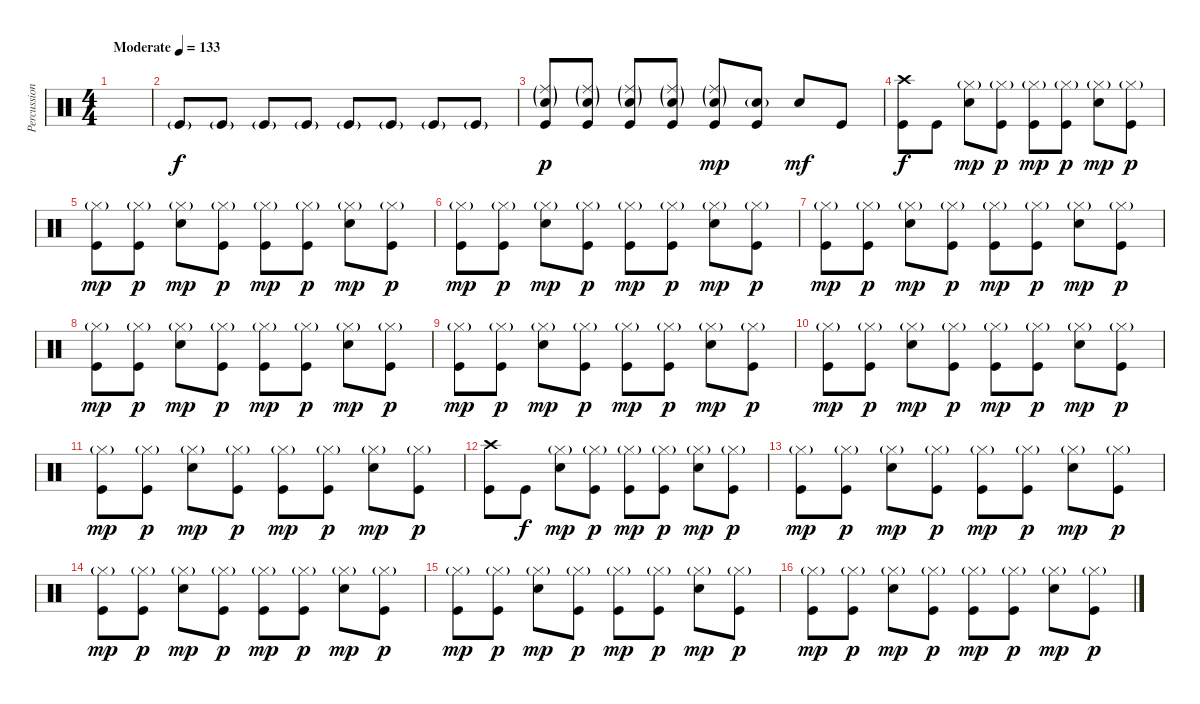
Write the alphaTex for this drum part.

\track ("Percussion" "Percussion") {instrument percussion}
\staff {score}
\articulation defaults
\ts (4 4)
\tempo (133 "Moderate")
\clef neutral
\ks c
|
"Kick (hit)"{g}.8 "Kick (hit)"{g}.8 "Kick (hit)"{g}.8 "Kick (hit)"{g}.8 "Kick (hit)"{g}.8 "Kick (hit)"{g}.8 "Kick (hit)"{g}.8 "Kick (hit)"{g}.8 |
("Ride (middle)"{g} "Electric Snare (hit)"{g} "Kick (hit)").8{dy p} ("Ride (middle)"{g} "Electric Snare (hit)"{g} "Kick (hit)").8 ("Ride (middle)"{g} "Electric Snare (hit)"{g} "Kick (hit)").8 ("Ride (middle)"{g} "Electric Snare (hit)"{g} "Kick (hit)").8 ("Ride (middle)"{g} "Electric Snare (hit)"{g} "Kick (hit)").8{dy mp} ("Electric Snare (hit)"{g} "Kick (hit)").8 "Electric Snare (hit)".8{dy mf} "Kick (hit)".8 |
("Crash high (hit)" "Kick (hit)").8{dy f} "Kick (hit)".8 ("Hi-Hat (closed)"{g} "Electric Snare (hit)").8{dy mp} ("Hi-Hat (closed)"{g} "Kick (hit)").8{dy p} ("Hi-Hat (closed)"{g} "Kick (hit)").8{dy mp} ("Hi-Hat (closed)"{g} "Kick (hit)").8{dy p} ("Hi-Hat (closed)"{g} "Electric Snare (hit)").8{dy mp} ("Hi-Hat (closed)"{g} "Kick (hit)").8{dy p} |
("Hi-Hat (closed)"{g} "Kick (hit)").8{dy mp} ("Hi-Hat (closed)"{g} "Kick (hit)").8{dy p} ("Hi-Hat (closed)"{g} "Electric Snare (hit)").8{dy mp} ("Hi-Hat (closed)"{g} "Kick (hit)").8{dy p} ("Hi-Hat (closed)"{g} "Kick (hit)").8{dy mp} ("Hi-Hat (closed)"{g} "Kick (hit)").8{dy p} ("Hi-Hat (closed)"{g} "Electric Snare (hit)").8{dy mp} ("Hi-Hat (closed)"{g} "Kick (hit)").8{dy p} |
("Hi-Hat (closed)"{g} "Kick (hit)").8{dy mp} ("Hi-Hat (closed)"{g} "Kick (hit)").8{dy p} ("Hi-Hat (closed)"{g} "Electric Snare (hit)").8{dy mp} ("Hi-Hat (closed)"{g} "Kick (hit)").8{dy p} ("Hi-Hat (closed)"{g} "Kick (hit)").8{dy mp} ("Hi-Hat (closed)"{g} "Kick (hit)").8{dy p} ("Hi-Hat (closed)"{g} "Electric Snare (hit)").8{dy mp} ("Hi-Hat (closed)"{g} "Kick (hit)").8{dy p} |
("Hi-Hat (closed)"{g} "Kick (hit)").8{dy mp} ("Hi-Hat (closed)"{g} "Kick (hit)").8{dy p} ("Hi-Hat (closed)"{g} "Electric Snare (hit)").8{dy mp} ("Hi-Hat (closed)"{g} "Kick (hit)").8{dy p} ("Hi-Hat (closed)"{g} "Kick (hit)").8{dy mp} ("Hi-Hat (closed)"{g} "Kick (hit)").8{dy p} ("Hi-Hat (closed)"{g} "Electric Snare (hit)").8{dy mp} ("Hi-Hat (closed)"{g} "Kick (hit)").8{dy p} |
("Hi-Hat (closed)"{g} "Kick (hit)").8{dy mp} ("Hi-Hat (closed)"{g} "Kick (hit)").8{dy p} ("Hi-Hat (closed)"{g} "Electric Snare (hit)").8{dy mp} ("Hi-Hat (closed)"{g} "Kick (hit)").8{dy p} ("Hi-Hat (closed)"{g} "Kick (hit)").8{dy mp} ("Hi-Hat (closed)"{g} "Kick (hit)").8{dy p} ("Hi-Hat (closed)"{g} "Electric Snare (hit)").8{dy mp} ("Hi-Hat (closed)"{g} "Kick (hit)").8{dy p} |
("Hi-Hat (closed)"{g} "Kick (hit)").8{dy mp} ("Hi-Hat (closed)"{g} "Kick (hit)").8{dy p} ("Hi-Hat (closed)"{g} "Electric Snare (hit)").8{dy mp} ("Hi-Hat (closed)"{g} "Kick (hit)").8{dy p} ("Hi-Hat (closed)"{g} "Kick (hit)").8{dy mp} ("Hi-Hat (closed)"{g} "Kick (hit)").8{dy p} ("Hi-Hat (closed)"{g} "Electric Snare (hit)").8{dy mp} ("Hi-Hat (closed)"{g} "Kick (hit)").8{dy p} |
("Hi-Hat (closed)"{g} "Kick (hit)").8{dy mp} ("Hi-Hat (closed)"{g} "Kick (hit)").8{dy p} ("Hi-Hat (closed)"{g} "Electric Snare (hit)").8{dy mp} ("Hi-Hat (closed)"{g} "Kick (hit)").8{dy p} ("Hi-Hat (closed)"{g} "Kick (hit)").8{dy mp} ("Hi-Hat (closed)"{g} "Kick (hit)").8{dy p} ("Hi-Hat (closed)"{g} "Electric Snare (hit)").8{dy mp} ("Hi-Hat (closed)"{g} "Kick (hit)").8{dy p} |
("Hi-Hat (closed)"{g} "Kick (hit)").8{dy mp} ("Hi-Hat (closed)"{g} "Kick (hit)").8{dy p} ("Hi-Hat (closed)"{g} "Electric Snare (hit)").8{dy mp} ("Hi-Hat (closed)"{g} "Kick (hit)").8{dy p} ("Hi-Hat (closed)"{g} "Kick (hit)").8{dy mp} ("Hi-Hat (closed)"{g} "Kick (hit)").8{dy p} ("Hi-Hat (closed)"{g} "Electric Snare (hit)").8{dy mp} ("Hi-Hat (closed)"{g} "Kick (hit)").8{dy p} |
("Crash high (hit)" "Kick (hit)").8 "Kick (hit)".8{dy f} ("Hi-Hat (closed)"{g} "Electric Snare (hit)").8{dy mp} ("Hi-Hat (closed)"{g} "Kick (hit)").8{dy p} ("Hi-Hat (closed)"{g} "Kick (hit)").8{dy mp} ("Hi-Hat (closed)"{g} "Kick (hit)").8{dy p} ("Hi-Hat (closed)"{g} "Electric Snare (hit)").8{dy mp} ("Hi-Hat (closed)"{g} "Kick (hit)").8{dy p} |
("Hi-Hat (closed)"{g} "Kick (hit)").8{dy mp} ("Hi-Hat (closed)"{g} "Kick (hit)").8{dy p} ("Hi-Hat (closed)"{g} "Electric Snare (hit)").8{dy mp} ("Hi-Hat (closed)"{g} "Kick (hit)").8{dy p} ("Hi-Hat (closed)"{g} "Kick (hit)").8{dy mp} ("Hi-Hat (closed)"{g} "Kick (hit)").8{dy p} ("Hi-Hat (closed)"{g} "Electric Snare (hit)").8{dy mp} ("Hi-Hat (closed)"{g} "Kick (hit)").8{dy p} |
("Hi-Hat (closed)"{g} "Kick (hit)").8{dy mp} ("Hi-Hat (closed)"{g} "Kick (hit)").8{dy p} ("Hi-Hat (closed)"{g} "Electric Snare (hit)").8{dy mp} ("Hi-Hat (closed)"{g} "Kick (hit)").8{dy p} ("Hi-Hat (closed)"{g} "Kick (hit)").8{dy mp} ("Hi-Hat (closed)"{g} "Kick (hit)").8{dy p} ("Hi-Hat (closed)"{g} "Electric Snare (hit)").8{dy mp} ("Hi-Hat (closed)"{g} "Kick (hit)").8{dy p} |
("Hi-Hat (closed)"{g} "Kick (hit)").8{dy mp} ("Hi-Hat (closed)"{g} "Kick (hit)").8{dy p} ("Hi-Hat (closed)"{g} "Electric Snare (hit)").8{dy mp} ("Hi-Hat (closed)"{g} "Kick (hit)").8{dy p} ("Hi-Hat (closed)"{g} "Kick (hit)").8{dy mp} ("Hi-Hat (closed)"{g} "Kick (hit)").8{dy p} ("Hi-Hat (closed)"{g} "Electric Snare (hit)").8{dy mp} ("Hi-Hat (closed)"{g} "Kick (hit)").8{dy p} |
("Hi-Hat (closed)"{g} "Kick (hit)").8{dy mp} ("Hi-Hat (closed)"{g} "Kick (hit)").8{dy p} ("Hi-Hat (closed)"{g} "Electric Snare (hit)").8{dy mp} ("Hi-Hat (closed)"{g} "Kick (hit)").8{dy p} ("Hi-Hat (closed)"{g} "Kick (hit)").8{dy mp} ("Hi-Hat (closed)"{g} "Kick (hit)").8{dy p} ("Hi-Hat (closed)"{g} "Electric Snare (hit)").8{dy mp} ("Hi-Hat (closed)"{g} "Kick (hit)").8{dy p}
